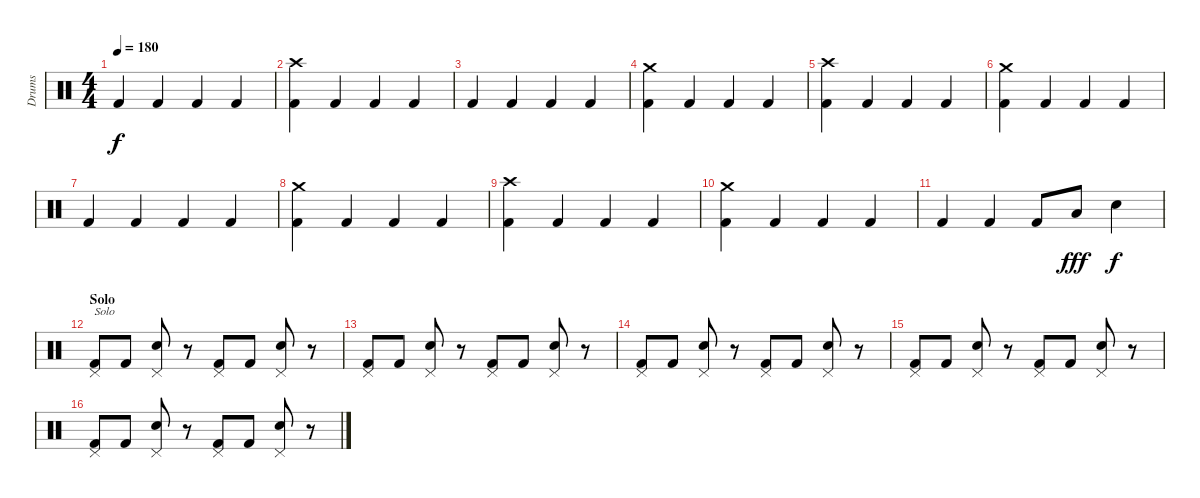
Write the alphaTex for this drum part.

\track ("Drums" "Drums") {instrument percussion}
\staff {score}
\articulation defaults
\ts (4 4)
\tempo 180
\clef neutral
\ks c "Kick (hit) 2".4{dy f} "Kick (hit) 2".4 "Kick (hit) 2".4 "Kick (hit) 2".4
|
("Crash high (hit)" "Kick (hit) 2").4 "Kick (hit) 2".4 "Kick (hit) 2".4 "Kick (hit) 2".4 |
"Kick (hit) 2".4 "Kick (hit) 2".4 "Kick (hit) 2".4 "Kick (hit) 2".4 |
("Crash medium (hit)" "Kick (hit) 2").4 "Kick (hit) 2".4 "Kick (hit) 2".4 "Kick (hit) 2".4 |
("Crash high (hit)" "Kick (hit) 2").4 "Kick (hit) 2".4 "Kick (hit) 2".4 "Kick (hit) 2".4 |
("Crash medium (hit)" "Kick (hit) 2").4 "Kick (hit) 2".4 "Kick (hit) 2".4 "Kick (hit) 2".4 |
"Kick (hit) 2".4 "Kick (hit) 2".4 "Kick (hit) 2".4 "Kick (hit) 2".4 |
("Crash medium (hit)" "Kick (hit) 2").4 "Kick (hit) 2".4 "Kick (hit) 2".4 "Kick (hit) 2".4 |
("Crash high (hit)" "Kick (hit) 2").4 "Kick (hit) 2".4 "Kick (hit) 2".4 "Kick (hit) 2".4 |
("Crash medium (hit)" "Kick (hit) 2").4 "Kick (hit) 2".4 "Kick (hit) 2".4 "Kick (hit) 2".4 |
"Kick (hit) 2".4 "Kick (hit) 2".4 "Kick (hit) 2".8 "Low Tom (hit)".8{dy fff} "Electric Snare (hit)".4{dy f} |
\section ("" "Solo")
("Pedal Hi-Hat (hit)" "Kick (hit) 2").8{txt "Solo"} "Kick (hit) 2".8 ("Pedal Hi-Hat (hit)" "Electric Snare (hit)").8 r.8 ("Pedal Hi-Hat (hit)" "Kick (hit) 2").8 "Kick (hit) 2".8 ("Pedal Hi-Hat (hit)" "Electric Snare (hit)").8 r.8 |
("Pedal Hi-Hat (hit)" "Kick (hit) 2").8 "Kick (hit) 2".8 ("Pedal Hi-Hat (hit)" "Electric Snare (hit)").8 r.8 ("Pedal Hi-Hat (hit)" "Kick (hit) 2").8 "Kick (hit) 2".8 ("Pedal Hi-Hat (hit)" "Electric Snare (hit)").8 r.8 |
("Pedal Hi-Hat (hit)" "Kick (hit) 2").8 "Kick (hit) 2".8 ("Pedal Hi-Hat (hit)" "Electric Snare (hit)").8 r.8 ("Pedal Hi-Hat (hit)" "Kick (hit) 2").8 "Kick (hit) 2".8 ("Pedal Hi-Hat (hit)" "Electric Snare (hit)").8 r.8 |
("Pedal Hi-Hat (hit)" "Kick (hit) 2").8 "Kick (hit) 2".8 ("Pedal Hi-Hat (hit)" "Electric Snare (hit)").8 r.8 ("Pedal Hi-Hat (hit)" "Kick (hit) 2").8 "Kick (hit) 2".8 ("Pedal Hi-Hat (hit)" "Electric Snare (hit)").8 r.8 |
("Pedal Hi-Hat (hit)" "Kick (hit) 2").8 "Kick (hit) 2".8 ("Pedal Hi-Hat (hit)" "Electric Snare (hit)").8 r.8 ("Pedal Hi-Hat (hit)" "Kick (hit) 2").8 "Kick (hit) 2".8 ("Pedal Hi-Hat (hit)" "Electric Snare (hit)").8 r.8
